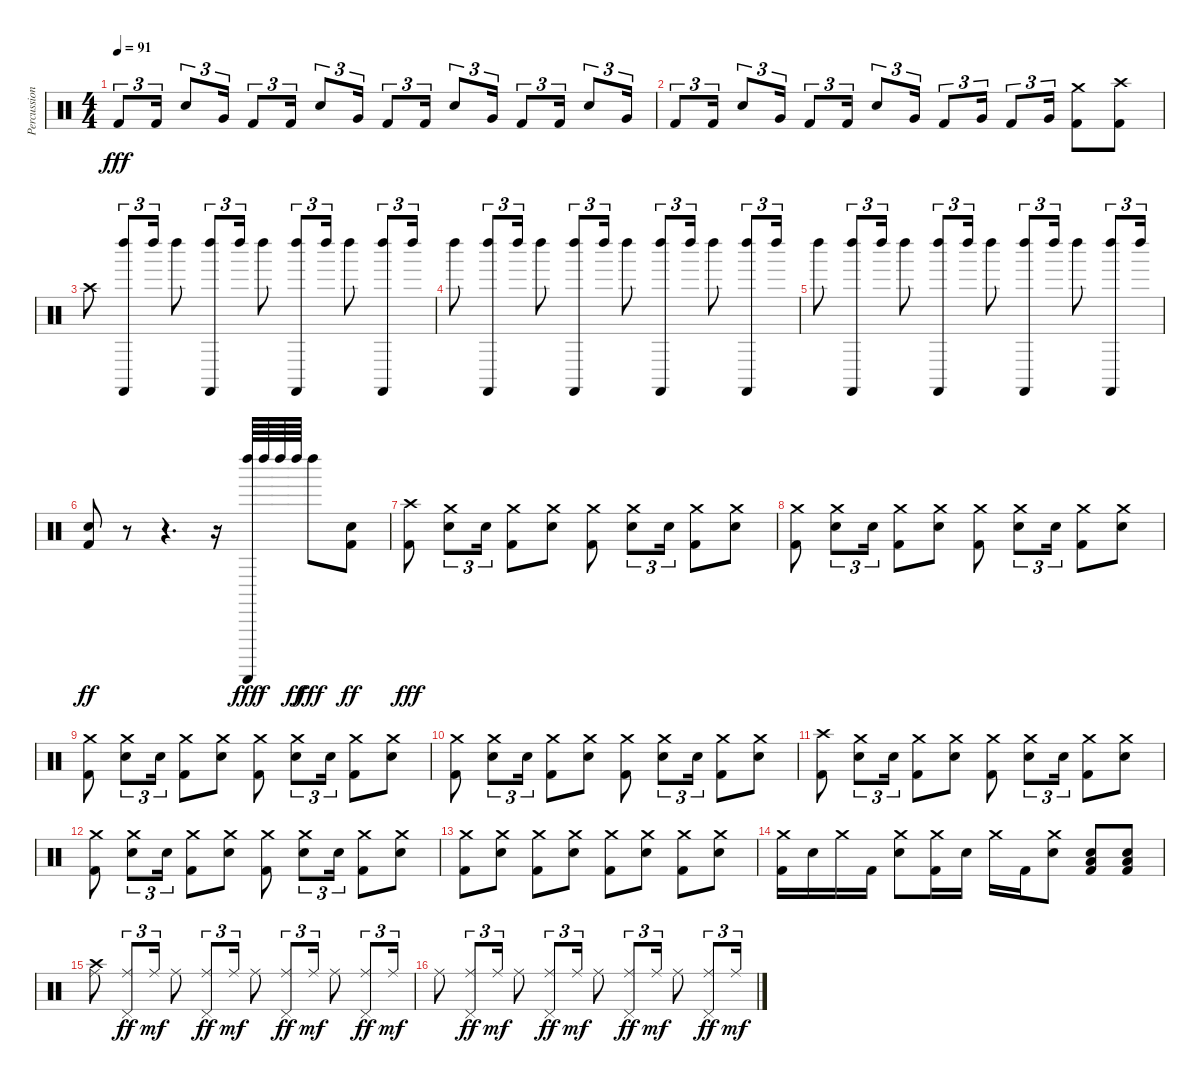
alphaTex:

\track ("Percussion" "Percussion") {instrument percussion}
\staff {score}
\articulation defaults
\ts (4 4)
\tempo 91
\clef neutral
\ks c "Kick (hit) 2".8{tu (3 2) dy fff} "Kick (hit) 2".16{tu (3 2)} "Electric Snare (hit)".8{tu (3 2)} "Very Low Tom (hit)".16{tu (3 2)} "Kick (hit) 2".8{tu (3 2)} "Kick (hit) 2".16{tu (3 2)} "Electric Snare (hit)".8{tu (3 2)} "Very Low Tom (hit)".16{tu (3 2)} "Kick (hit) 2".8{tu (3 2)} "Kick (hit) 2".16{tu (3 2)} "Electric Snare (hit)".8{tu (3 2)} "Very Low Tom (hit)".16{tu (3 2)} "Kick (hit) 2".8{tu (3 2)} "Kick (hit) 2".16{tu (3 2)} "Electric Snare (hit)".8{tu (3 2)} "Very Low Tom (hit)".16{tu (3 2)}
|
"Kick (hit) 2".8{tu (3 2)} "Kick (hit) 2".16{tu (3 2)} "Electric Snare (hit)".8{tu (3 2)} "Very Low Tom (hit)".16{tu (3 2)} "Kick (hit) 2".8{tu (3 2)} "Kick (hit) 2".16{tu (3 2)} "Electric Snare (hit)".8{tu (3 2)} "Very Low Tom (hit)".16{tu (3 2)} "Kick (hit) 2".8{tu (3 2)} "Very Low Tom (hit)".16{tu (3 2)} "Kick (hit) 2".8{tu (3 2)} "Very Low Tom (hit)".16{tu (3 2)} ("Crash medium (hit)" "Kick (hit) 2").8 ("Crash high (hit)" "Kick (hit) 2").8 |
"Crash high (hit)".8 ("Left Maraca (hit)" "Castanets (hit)").8{tu (3 2)} "Left Maraca (hit)".16{tu (3 2)} "Left Maraca (hit)".8 ("Left Maraca (hit)" "Castanets (hit)").8{tu (3 2)} "Left Maraca (hit)".16{tu (3 2)} "Left Maraca (hit)".8 ("Left Maraca (hit)" "Castanets (hit)").8{tu (3 2)} "Left Maraca (hit)".16{tu (3 2)} "Left Maraca (hit)".8 ("Left Maraca (hit)" "Castanets (hit)").8{tu (3 2)} "Left Maraca (hit)".16{tu (3 2)} |
"Left Maraca (hit)".8 ("Left Maraca (hit)" "Castanets (hit)").8{tu (3 2)} "Left Maraca (hit)".16{tu (3 2)} "Left Maraca (hit)".8 ("Left Maraca (hit)" "Castanets (hit)").8{tu (3 2)} "Left Maraca (hit)".16{tu (3 2)} "Left Maraca (hit)".8 ("Left Maraca (hit)" "Castanets (hit)").8{tu (3 2)} "Left Maraca (hit)".16{tu (3 2)} "Left Maraca (hit)".8 ("Left Maraca (hit)" "Castanets (hit)").8{tu (3 2)} "Left Maraca (hit)".16{tu (3 2)} |
"Left Maraca (hit)".8 ("Left Maraca (hit)" "Castanets (hit)").8{tu (3 2)} "Left Maraca (hit)".16{tu (3 2)} "Left Maraca (hit)".8 ("Left Maraca (hit)" "Castanets (hit)").8{tu (3 2)} "Left Maraca (hit)".16{tu (3 2)} "Left Maraca (hit)".8 ("Left Maraca (hit)" "Castanets (hit)").8{tu (3 2)} "Left Maraca (hit)".16{tu (3 2)} "Left Maraca (hit)".8 ("Left Maraca (hit)" "Castanets (hit)").8{tu (3 2)} "Left Maraca (hit)".16{tu (3 2)} |
("Electric Snare (hit)" "Kick (hit) 2").8{dy ff} r.8 r.4{d} r.16 ("Guiro (scrap-return)" "Left Maraca (hit)").64{dy fff} "Left Maraca (hit)".64{dy f} "Left Maraca (hit)".64 "Left Maraca (hit)".64{dy ff} "Left Maraca (hit)".8{dy fff} ("Electric Snare (hit)" "Kick (hit) 2").8{dy ff} |
("Crash high (hit)" "Kick (hit) 2").8{dy fff} ("Crash medium (hit)" "Electric Snare (hit)").8{tu (3 2)} "Electric Snare (hit)".16{tu (3 2)} ("Crash medium (hit)" "Kick (hit) 2").8 ("Crash medium (hit)" "Electric Snare (hit)").8 ("Crash medium (hit)" "Kick (hit) 2").8 ("Crash medium (hit)" "Electric Snare (hit)").8{tu (3 2)} "Electric Snare (hit)".16{tu (3 2)} ("Crash medium (hit)" "Kick (hit) 2").8 ("Crash medium (hit)" "Electric Snare (hit)").8 |
("Crash medium (hit)" "Kick (hit) 2").8 ("Crash medium (hit)" "Electric Snare (hit)").8{tu (3 2)} "Electric Snare (hit)".16{tu (3 2)} ("Crash medium (hit)" "Kick (hit) 2").8 ("Crash medium (hit)" "Electric Snare (hit)").8 ("Crash medium (hit)" "Kick (hit) 2").8 ("Crash medium (hit)" "Electric Snare (hit)").8{tu (3 2)} "Electric Snare (hit)".16{tu (3 2)} ("Crash medium (hit)" "Kick (hit) 2").8 ("Crash medium (hit)" "Electric Snare (hit)").8 |
("Crash medium (hit)" "Kick (hit) 2").8 ("Crash medium (hit)" "Electric Snare (hit)").8{tu (3 2)} "Electric Snare (hit)".16{tu (3 2)} ("Crash medium (hit)" "Kick (hit) 2").8 ("Crash medium (hit)" "Electric Snare (hit)").8 ("Crash medium (hit)" "Kick (hit) 2").8 ("Crash medium (hit)" "Electric Snare (hit)").8{tu (3 2)} "Electric Snare (hit)".16{tu (3 2)} ("Crash medium (hit)" "Kick (hit) 2").8 ("Crash medium (hit)" "Electric Snare (hit)").8 |
("Crash medium (hit)" "Kick (hit) 2").8 ("Crash medium (hit)" "Electric Snare (hit)").8{tu (3 2)} "Electric Snare (hit)".16{tu (3 2)} ("Crash medium (hit)" "Kick (hit) 2").8 ("Crash medium (hit)" "Electric Snare (hit)").8 ("Crash medium (hit)" "Kick (hit) 2").8 ("Crash medium (hit)" "Electric Snare (hit)").8{tu (3 2)} "Electric Snare (hit)".16{tu (3 2)} ("Crash medium (hit)" "Kick (hit) 2").8 ("Crash medium (hit)" "Electric Snare (hit)").8 |
("Crash high (hit)" "Kick (hit) 2").8 ("Crash medium (hit)" "Electric Snare (hit)").8{tu (3 2)} "Electric Snare (hit)".16{tu (3 2)} ("Crash medium (hit)" "Kick (hit) 2").8 ("Crash medium (hit)" "Electric Snare (hit)").8 ("Crash medium (hit)" "Kick (hit) 2").8 ("Crash medium (hit)" "Electric Snare (hit)").8{tu (3 2)} "Electric Snare (hit)".16{tu (3 2)} ("Crash medium (hit)" "Kick (hit) 2").8 ("Crash medium (hit)" "Electric Snare (hit)").8 |
("Crash medium (hit)" "Kick (hit) 2").8 ("Crash medium (hit)" "Electric Snare (hit)").8{tu (3 2)} "Electric Snare (hit)".16{tu (3 2)} ("Crash medium (hit)" "Kick (hit) 2").8 ("Crash medium (hit)" "Electric Snare (hit)").8 ("Crash medium (hit)" "Kick (hit) 2").8 ("Crash medium (hit)" "Electric Snare (hit)").8{tu (3 2)} "Electric Snare (hit)".16{tu (3 2)} ("Crash medium (hit)" "Kick (hit) 2").8 ("Crash medium (hit)" "Electric Snare (hit)").8 |
("Crash medium (hit)" "Kick (hit) 2").8 ("Crash medium (hit)" "Electric Snare (hit)").8 ("Crash medium (hit)" "Kick (hit) 2").8 ("Crash medium (hit)" "Electric Snare (hit)").8 ("Crash medium (hit)" "Kick (hit) 2").8 ("Crash medium (hit)" "Electric Snare (hit)").8 ("Crash medium (hit)" "Kick (hit) 2").8 ("Crash medium (hit)" "Electric Snare (hit)").8 |
("Crash medium (hit)" "Kick (hit) 2").16 "Electric Snare (hit)".16 "Crash medium (hit)".16 "Kick (hit) 2".16 ("Crash medium (hit)" "Electric Snare (hit)").8 ("Crash medium (hit)" "Kick (hit) 2").16 "Electric Snare (hit)".16 "Crash medium (hit)".16 "Kick (hit) 2".16 ("Crash medium (hit)" "Electric Snare (hit)").8 ("Electric Snare (hit)" "Low Floor Tom (hit)" "Kick (hit) 2").8 ("Electric Snare (hit)" "Low Floor Tom (hit)" "Kick (hit) 2").8 |
("Ride (middle)" "Crash high (hit)").8 ("Ride (middle)" "Pedal Hi-Hat (hit)").8{tu (3 2) dy ff} "Ride (middle)".16{tu (3 2) dy mf} "Ride (middle)".8 ("Ride (middle)" "Pedal Hi-Hat (hit)").8{tu (3 2) dy ff} "Ride (middle)".16{tu (3 2) dy mf} "Ride (middle)".8 ("Ride (middle)" "Pedal Hi-Hat (hit)").8{tu (3 2) dy ff} "Ride (middle)".16{tu (3 2) dy mf} "Ride (middle)".8 ("Ride (middle)" "Pedal Hi-Hat (hit)").8{tu (3 2) dy ff} "Ride (middle)".16{tu (3 2) dy mf} |
"Ride (middle)".8 ("Ride (middle)" "Pedal Hi-Hat (hit)").8{tu (3 2) dy ff} "Ride (middle)".16{tu (3 2) dy mf} "Ride (middle)".8 ("Ride (middle)" "Pedal Hi-Hat (hit)").8{tu (3 2) dy ff} "Ride (middle)".16{tu (3 2) dy mf} "Ride (middle)".8 ("Ride (middle)" "Pedal Hi-Hat (hit)").8{tu (3 2) dy ff} "Ride (middle)".16{tu (3 2) dy mf} "Ride (middle)".8 ("Ride (middle)" "Pedal Hi-Hat (hit)").8{tu (3 2) dy ff} "Ride (middle)".16{tu (3 2) dy mf}
